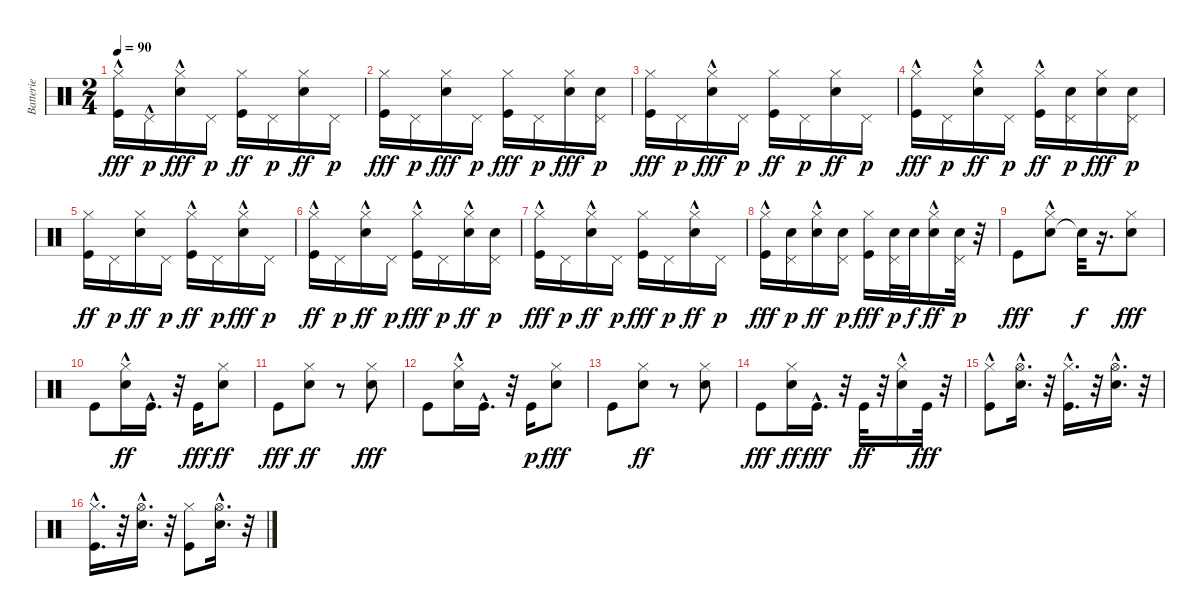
\track ("Batterie" "Batterie") {instrument percussion}
\staff {score}
\articulation defaults
\ts (2 4)
\tempo 90
\clef neutral
\ks c
("Kick (hit)" "Hi-Hat (closed)"{hac}).16{dy fff} "Pedal Hi-Hat (hit)"{hac}.16{dy p} ("Snare (hit) 2" "Hi-Hat (closed)"{hac}).16{dy fff} "Pedal Hi-Hat (hit)".16{dy p} ("Kick (hit)" "Hi-Hat (closed)").16{dy ff} "Pedal Hi-Hat (hit)".16{dy p} ("Snare (hit) 2" "Hi-Hat (closed)").16{dy ff} "Pedal Hi-Hat (hit)".16{dy p} |
("Kick (hit)" "Hi-Hat (closed)").16{dy fff} "Pedal Hi-Hat (hit)".16{dy p} ("Snare (hit) 2" "Hi-Hat (closed)").16{dy fff} "Pedal Hi-Hat (hit)".16{dy p} ("Kick (hit)" "Hi-Hat (closed)").16{dy fff} "Pedal Hi-Hat (hit)".16{dy p} ("Snare (hit) 2" "Hi-Hat (closed)").16{dy fff} ("Snare (hit) 2" "Pedal Hi-Hat (hit)").16{dy p} |
("Kick (hit)" "Hi-Hat (closed)").16{dy fff} "Pedal Hi-Hat (hit)".16{dy p} ("Snare (hit) 2" "Hi-Hat (closed)"{hac}).16{dy fff} "Pedal Hi-Hat (hit)".16{dy p} ("Kick (hit)" "Hi-Hat (closed)").16{dy ff} "Pedal Hi-Hat (hit)".16{dy p} ("Snare (hit) 2" "Hi-Hat (closed)").16{dy ff} "Pedal Hi-Hat (hit)".16{dy p} |
("Kick (hit)" "Hi-Hat (closed)"{hac}).16{dy fff} "Pedal Hi-Hat (hit)".16{dy p} ("Snare (hit) 2" "Hi-Hat (closed)"{hac}).16{dy ff} "Pedal Hi-Hat (hit)".16{dy p} ("Kick (hit)" "Hi-Hat (closed)"{hac}).16{dy ff} ("Snare (hit) 2" "Pedal Hi-Hat (hit)").16{dy p} ("Snare (hit) 2" "Hi-Hat (closed)").16{dy fff} ("Snare (hit) 2" "Pedal Hi-Hat (hit)").16{dy p} |
("Kick (hit)" "Hi-Hat (closed)").16{dy ff} "Pedal Hi-Hat (hit)".16{dy p} ("Snare (hit) 2" "Hi-Hat (closed)").16{dy ff} "Pedal Hi-Hat (hit)".16{dy p} ("Kick (hit)" "Hi-Hat (closed)"{hac}).16{dy ff} "Pedal Hi-Hat (hit)".16{dy p} ("Snare (hit) 2" "Hi-Hat (closed)"{hac}).16{dy fff} "Pedal Hi-Hat (hit)".16{dy p} |
("Kick (hit)" "Hi-Hat (closed)"{hac}).16{dy ff} "Pedal Hi-Hat (hit)".16{dy p} ("Snare (hit) 2" "Hi-Hat (closed)"{hac}).16{dy ff} "Pedal Hi-Hat (hit)".16{dy p} ("Kick (hit)" "Hi-Hat (closed)"{hac}).16{dy fff} "Pedal Hi-Hat (hit)".16{dy p} ("Snare (hit) 2" "Hi-Hat (closed)"{hac}).16{dy ff} ("Snare (hit) 2" "Pedal Hi-Hat (hit)").16{dy p} |
("Kick (hit)" "Hi-Hat (closed)"{hac}).16{dy fff} "Pedal Hi-Hat (hit)".16{dy p} ("Snare (hit) 2" "Hi-Hat (closed)"{hac}).16{dy ff} "Pedal Hi-Hat (hit)".16{dy p} ("Kick (hit)" "Hi-Hat (closed)").16{dy fff} "Pedal Hi-Hat (hit)".16{dy p} ("Snare (hit) 2" "Hi-Hat (closed)"{hac}).16{dy ff} "Pedal Hi-Hat (hit)".16{dy p} |
("Kick (hit)" "Hi-Hat (closed)"{hac}).16{dy fff} ("Snare (hit) 2" "Pedal Hi-Hat (hit)").16{dy p} ("Snare (hit) 2" "Hi-Hat (closed)"{hac}).16{dy ff} ("Snare (hit) 2" "Pedal Hi-Hat (hit)").16{dy p} ("Kick (hit)" "Hi-Hat (closed)").16{dy fff} ("Snare (hit) 2" "Pedal Hi-Hat (hit)").32{dy p} "Snare (hit) 2".32{dy f} ("Snare (hit) 2" "Hi-Hat (closed)"{hac}).16{dy ff} ("Snare (hit) 2" "Pedal Hi-Hat (hit)").32{dy p} r.32 |
"Kick (hit)".8{dy fff} ("Snare (hit) 2" "Hi-Hat (closed)"{hac}).8 "Snare (hit)"{t}.32{dy f} r.16{d} ("Snare (hit) 2" "Hi-Hat (closed)").8{dy fff} |
"Kick (hit)".8 ("Snare (hit) 2"{hac} "Hi-Hat (closed)").16{dy ff} "Kick (hit)"{hac}.16{d} r.32 "Kick (hit)".16{dy fff} ("Snare (hit) 2" "Hi-Hat (closed)").8{dy ff} |
"Kick (hit)".8{dy fff} ("Snare (hit) 2" "Hi-Hat (closed)").8{dy ff} r.8 ("Snare (hit) 2" "Hi-Hat (closed)").8{dy fff} |
"Kick (hit)".8 ("Snare (hit) 2"{hac} "Hi-Hat (closed)").16 "Kick (hit)"{hac}.16{d} r.32 "Kick (hit)".16{dy p} ("Snare (hit) 2" "Hi-Hat (closed)").8{dy fff} |
"Kick (hit)".8 ("Snare (hit) 2" "Hi-Hat (closed)").8{dy ff} r.8 ("Snare (hit) 2" "Hi-Hat (closed)").8 |
"Kick (hit)".8{dy fff} ("Snare (hit) 2" "Hi-Hat (closed)").16{dy ff} "Kick (hit)"{hac}.16{d dy fff} r.32 "Kick (hit)".32{dy ff} r.32 ("Snare (hit) 2"{hac} "Hi-Hat (closed)").16 "Kick (hit)".32{dy fff} r.32 |
("Kick (hit)"{hac} "Hi-Hat (closed)").8 ("Snare (hit) 2"{hac} "Hi-Hat (open)"{hac}).16{d} r.32 ("Kick (hit)"{hac} "Hi-Hat (closed)"{hac}).16{d} r.32 ("Snare (hit) 2" "Hi-Hat (open)"{hac}).16{d} r.32 |
("Kick (hit)"{hac} "Hi-Hat (closed)"{hac}).16{d} r.32 ("Snare (hit) 2" "Hi-Hat (open)"{hac}).16{d} r.32 ("Kick (hit)" "Hi-Hat (closed)").8 ("Snare (hit) 2" "Hi-Hat (open)"{hac}).16{d} r.32
